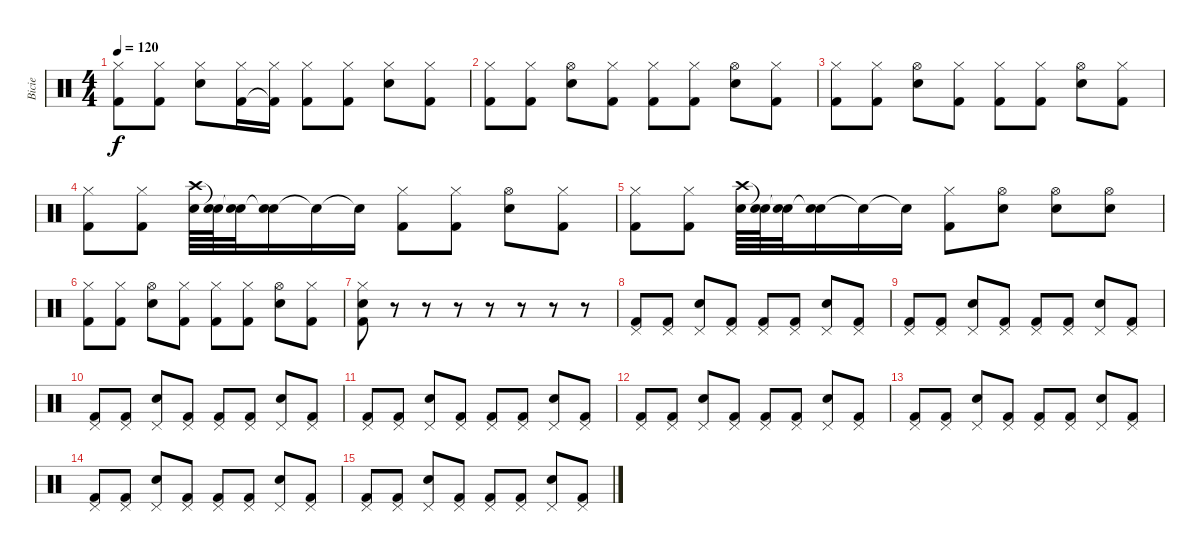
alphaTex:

\track ("Bicie" "Bicie") {instrument percussion}
\staff {score}
\articulation defaults
\ts (4 4)
\tempo 120
\clef neutral
\ks c
("Hi-Hat (closed)" "Kick (hit) 2").8{dy f} ("Hi-Hat (closed)" "Kick (hit) 2").8 ("Hi-Hat (closed)" "Electric Snare (hit)").8 ("Hi-Hat (closed)" "Kick (hit) 2").16 ("Hi-Hat (closed)" "Kick (hit) 2"{t}).16 ("Hi-Hat (closed)" "Kick (hit) 2").8 ("Hi-Hat (closed)" "Kick (hit) 2").8 ("Hi-Hat (closed)" "Electric Snare (hit)").8 ("Hi-Hat (closed)" "Kick (hit) 2").8 |
("Hi-Hat (closed)" "Kick (hit) 2").8 ("Hi-Hat (closed)" "Kick (hit) 2").8 ("Hi-Hat (open)" "Electric Snare (hit)").8 ("Hi-Hat (closed)" "Kick (hit) 2").8 ("Hi-Hat (closed)" "Kick (hit) 2").8 ("Hi-Hat (closed)" "Kick (hit) 2").8 ("Hi-Hat (open)" "Electric Snare (hit)").8 ("Hi-Hat (closed)" "Kick (hit) 2").8 |
("Hi-Hat (closed)" "Kick (hit) 2").8 ("Hi-Hat (closed)" "Kick (hit) 2").8 ("Hi-Hat (open)" "Electric Snare (hit)").8 ("Hi-Hat (closed)" "Kick (hit) 2").8 ("Hi-Hat (closed)" "Kick (hit) 2").8 ("Hi-Hat (closed)" "Kick (hit) 2").8 ("Hi-Hat (open)" "Electric Snare (hit)").8 ("Hi-Hat (closed)" "Kick (hit) 2").8 |
("Hi-Hat (closed)" "Kick (hit) 2").8 ("Hi-Hat (closed)" "Kick (hit) 2").8 ("Crash high (hit)" "Electric Snare (hit)").64 ("Snare (hit)"{t} "Electric Snare (hit)").64 ("Snare (hit)"{t} "Electric Snare (hit)").32 ("Snare (hit)"{t} "Electric Snare (hit)").16 "Snare (hit)"{t}.16 "Snare (hit)"{t}.16 ("Hi-Hat (closed)" "Kick (hit) 2").8 ("Hi-Hat (closed)" "Kick (hit) 2").8 ("Hi-Hat (open)" "Electric Snare (hit)").8 ("Hi-Hat (closed)" "Kick (hit) 2").8 |
("Hi-Hat (closed)" "Kick (hit) 2").8 ("Hi-Hat (closed)" "Kick (hit) 2").8 ("Crash high (hit)" "Electric Snare (hit)").64 ("Snare (hit)"{t} "Electric Snare (hit)").64 ("Snare (hit)"{t} "Electric Snare (hit)").32 ("Snare (hit)"{t} "Electric Snare (hit)").16 "Snare (hit)"{t}.16 "Snare (hit)"{t}.16 ("Hi-Hat (closed)" "Kick (hit) 2").8 ("Hi-Hat (open)" "Electric Snare (hit)").8 ("Hi-Hat (open)" "Electric Snare (hit)").8 ("Hi-Hat (open)" "Electric Snare (hit)").8 |
("Hi-Hat (closed)" "Kick (hit) 2").8 ("Hi-Hat (closed)" "Kick (hit) 2").8 ("Hi-Hat (open)" "Electric Snare (hit)").8 ("Hi-Hat (closed)" "Kick (hit) 2").8 ("Hi-Hat (closed)" "Kick (hit) 2").8 ("Hi-Hat (closed)" "Kick (hit) 2").8 ("Hi-Hat (open)" "Electric Snare (hit)").8 ("Hi-Hat (closed)" "Kick (hit) 2").8 |
("Kick (hit) 2" "Hi-Hat (closed)" "Electric Snare (hit)").8 r.8 r.8 r.8 r.8 r.8 r.8 r.8 |
("Pedal Hi-Hat (hit)" "Kick (hit) 2").8 ("Pedal Hi-Hat (hit)" "Kick (hit) 2").8 ("Pedal Hi-Hat (hit)" "Electric Snare (hit)").8 ("Pedal Hi-Hat (hit)" "Kick (hit) 2").8 ("Pedal Hi-Hat (hit)" "Kick (hit) 2").8 ("Pedal Hi-Hat (hit)" "Kick (hit) 2").8 ("Pedal Hi-Hat (hit)" "Electric Snare (hit)").8 ("Pedal Hi-Hat (hit)" "Kick (hit) 2").8 |
("Pedal Hi-Hat (hit)" "Kick (hit) 2").8 ("Pedal Hi-Hat (hit)" "Kick (hit) 2").8 ("Pedal Hi-Hat (hit)" "Electric Snare (hit)").8 ("Pedal Hi-Hat (hit)" "Kick (hit) 2").8 ("Pedal Hi-Hat (hit)" "Kick (hit) 2").8 ("Pedal Hi-Hat (hit)" "Kick (hit) 2").8 ("Pedal Hi-Hat (hit)" "Electric Snare (hit)").8 ("Pedal Hi-Hat (hit)" "Kick (hit) 2").8 |
("Pedal Hi-Hat (hit)" "Kick (hit) 2").8 ("Pedal Hi-Hat (hit)" "Kick (hit) 2").8 ("Pedal Hi-Hat (hit)" "Electric Snare (hit)").8 ("Pedal Hi-Hat (hit)" "Kick (hit) 2").8 ("Pedal Hi-Hat (hit)" "Kick (hit) 2").8 ("Pedal Hi-Hat (hit)" "Kick (hit) 2").8 ("Pedal Hi-Hat (hit)" "Electric Snare (hit)").8 ("Pedal Hi-Hat (hit)" "Kick (hit) 2").8 |
("Pedal Hi-Hat (hit)" "Kick (hit) 2").8 ("Pedal Hi-Hat (hit)" "Kick (hit) 2").8 ("Pedal Hi-Hat (hit)" "Electric Snare (hit)").8 ("Pedal Hi-Hat (hit)" "Kick (hit) 2").8 ("Pedal Hi-Hat (hit)" "Kick (hit) 2").8 ("Pedal Hi-Hat (hit)" "Kick (hit) 2").8 ("Pedal Hi-Hat (hit)" "Electric Snare (hit)").8 ("Pedal Hi-Hat (hit)" "Kick (hit) 2").8 |
("Pedal Hi-Hat (hit)" "Kick (hit) 2").8 ("Pedal Hi-Hat (hit)" "Kick (hit) 2").8 ("Pedal Hi-Hat (hit)" "Electric Snare (hit)").8 ("Pedal Hi-Hat (hit)" "Kick (hit) 2").8 ("Pedal Hi-Hat (hit)" "Kick (hit) 2").8 ("Pedal Hi-Hat (hit)" "Kick (hit) 2").8 ("Pedal Hi-Hat (hit)" "Electric Snare (hit)").8 ("Pedal Hi-Hat (hit)" "Kick (hit) 2").8 |
("Pedal Hi-Hat (hit)" "Kick (hit) 2").8 ("Pedal Hi-Hat (hit)" "Kick (hit) 2").8 ("Pedal Hi-Hat (hit)" "Electric Snare (hit)").8 ("Pedal Hi-Hat (hit)" "Kick (hit) 2").8 ("Pedal Hi-Hat (hit)" "Kick (hit) 2").8 ("Pedal Hi-Hat (hit)" "Kick (hit) 2").8 ("Pedal Hi-Hat (hit)" "Electric Snare (hit)").8 ("Pedal Hi-Hat (hit)" "Kick (hit) 2").8 |
("Pedal Hi-Hat (hit)" "Kick (hit) 2").8 ("Pedal Hi-Hat (hit)" "Kick (hit) 2").8 ("Pedal Hi-Hat (hit)" "Electric Snare (hit)").8 ("Pedal Hi-Hat (hit)" "Kick (hit) 2").8 ("Pedal Hi-Hat (hit)" "Kick (hit) 2").8 ("Pedal Hi-Hat (hit)" "Kick (hit) 2").8 ("Pedal Hi-Hat (hit)" "Electric Snare (hit)").8 ("Pedal Hi-Hat (hit)" "Kick (hit) 2").8 |
("Pedal Hi-Hat (hit)" "Kick (hit) 2").8 ("Pedal Hi-Hat (hit)" "Kick (hit) 2").8 ("Pedal Hi-Hat (hit)" "Electric Snare (hit)").8 ("Pedal Hi-Hat (hit)" "Kick (hit) 2").8 ("Pedal Hi-Hat (hit)" "Kick (hit) 2").8 ("Pedal Hi-Hat (hit)" "Kick (hit) 2").8 ("Pedal Hi-Hat (hit)" "Electric Snare (hit)").8 ("Pedal Hi-Hat (hit)" "Kick (hit) 2").8
